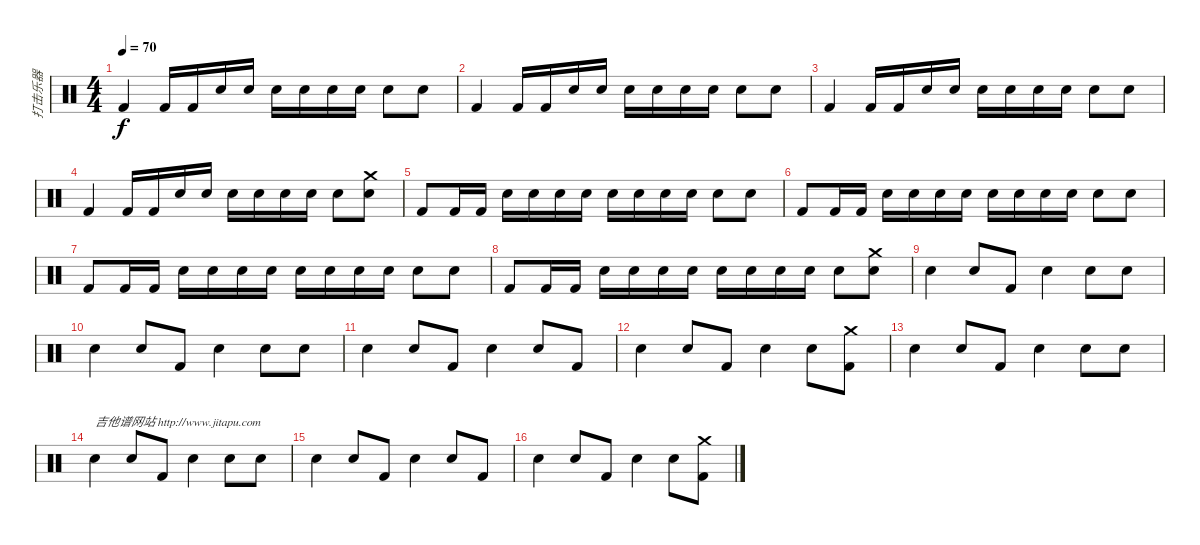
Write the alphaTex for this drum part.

\track ("打击乐器" "打击乐器") {instrument percussion}
\staff {score}
\articulation defaults
\ts (4 4)
\tempo 70
\clef neutral
\ks c "Kick (hit) 2".4{dy f} "Kick (hit) 2".16 "Kick (hit) 2".16 "Snare (hit) 2".16 "Snare (hit) 2".16 "Snare (hit) 2".16 "Electric Snare (hit)".16 "Electric Snare (hit)".16 "Electric Snare (hit)".16 "Snare (hit) 2".8 "Snare (hit) 2".8
|
"Kick (hit) 2".4 "Kick (hit) 2".16 "Kick (hit) 2".16 "Snare (hit) 2".16 "Snare (hit) 2".16 "Snare (hit) 2".16 "Electric Snare (hit)".16 "Electric Snare (hit)".16 "Electric Snare (hit)".16 "Snare (hit) 2".8 "Snare (hit) 2".8 |
"Kick (hit) 2".4 "Kick (hit) 2".16 "Kick (hit) 2".16 "Snare (hit) 2".16 "Snare (hit) 2".16 "Snare (hit) 2".16 "Electric Snare (hit)".16 "Electric Snare (hit)".16 "Electric Snare (hit)".16 "Snare (hit) 2".8 "Snare (hit) 2".8 |
"Kick (hit) 2".4 "Kick (hit) 2".16 "Kick (hit) 2".16 "Snare (hit) 2".16 "Snare (hit) 2".16 "Snare (hit) 2".16 "Electric Snare (hit)".16 "Electric Snare (hit)".16 "Electric Snare (hit)".16 "Snare (hit) 2".8 ("Snare (hit) 2" "Crash medium (hit)").8 |
"Kick (hit) 2".8 "Kick (hit) 2".16 "Kick (hit) 2".16 "Snare (hit) 2".16 "Snare (hit) 2".16 "Snare (hit) 2".16 "Snare (hit) 2".16 "Electric Snare (hit)".16 "Electric Snare (hit)".16 "Electric Snare (hit)".16 "Electric Snare (hit)".16 "Snare (hit) 2".8 "Snare (hit) 2".8 |
"Kick (hit) 2".8 "Kick (hit) 2".16 "Kick (hit) 2".16 "Snare (hit) 2".16 "Snare (hit) 2".16 "Snare (hit) 2".16 "Snare (hit) 2".16 "Electric Snare (hit)".16 "Electric Snare (hit)".16 "Electric Snare (hit)".16 "Electric Snare (hit)".16 "Snare (hit) 2".8 "Snare (hit) 2".8 |
"Kick (hit) 2".8 "Kick (hit) 2".16 "Kick (hit) 2".16 "Snare (hit) 2".16 "Snare (hit) 2".16 "Snare (hit) 2".16 "Snare (hit) 2".16 "Electric Snare (hit)".16 "Electric Snare (hit)".16 "Electric Snare (hit)".16 "Electric Snare (hit)".16 "Snare (hit) 2".8 "Snare (hit) 2".8 |
"Kick (hit) 2".8 "Kick (hit) 2".16 "Kick (hit) 2".16 "Snare (hit) 2".16 "Snare (hit) 2".16 "Snare (hit) 2".16 "Snare (hit) 2".16 "Electric Snare (hit)".16 "Electric Snare (hit)".16 "Electric Snare (hit)".16 "Electric Snare (hit)".16 "Snare (hit) 2".8 ("Snare (hit) 2" "Crash medium (hit)").8 |
"Snare (hit) 2".4 "Electric Snare (hit)".8 "Kick (hit) 2".8 "Snare (hit) 2".4 "Electric Snare (hit)".8 "Snare (hit) 2".8 |
"Snare (hit) 2".4 "Electric Snare (hit)".8 "Kick (hit) 2".8 "Snare (hit) 2".4 "Electric Snare (hit)".8 "Snare (hit) 2".8 |
"Snare (hit) 2".4 "Electric Snare (hit)".8 "Kick (hit) 2".8 "Snare (hit) 2".4 "Electric Snare (hit)".8 "Kick (hit) 2".8 |
"Snare (hit) 2".4 "Electric Snare (hit)".8 "Kick (hit) 2".8 "Snare (hit) 2".4 "Electric Snare (hit)".8 ("Crash medium (hit)" "Kick (hit) 2").8 |
"Snare (hit) 2".4 "Electric Snare (hit)".8 "Kick (hit) 2".8 "Snare (hit) 2".4 "Electric Snare (hit)".8 "Snare (hit) 2".8 |
"Snare (hit) 2".4{txt "吉他谱网站 http://www.jitapu.com"} "Electric Snare (hit)".8 "Kick (hit) 2".8 "Snare (hit) 2".4 "Electric Snare (hit)".8 "Snare (hit) 2".8 |
"Snare (hit) 2".4 "Electric Snare (hit)".8 "Kick (hit) 2".8 "Snare (hit) 2".4 "Electric Snare (hit)".8 "Kick (hit) 2".8 |
"Snare (hit) 2".4 "Electric Snare (hit)".8 "Kick (hit) 2".8 "Snare (hit) 2".4 "Electric Snare (hit)".8 ("Crash medium (hit)" "Kick (hit) 2").8
